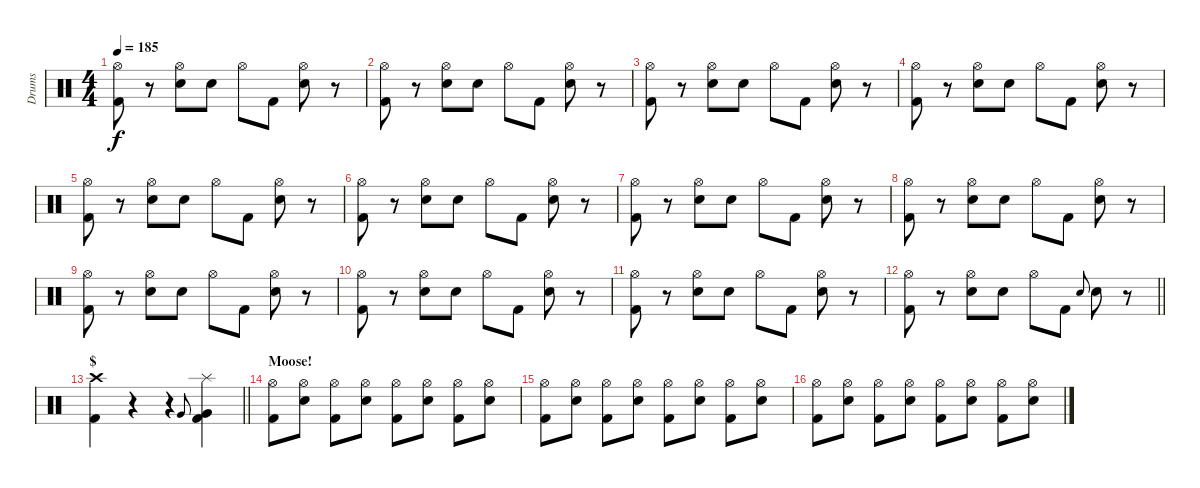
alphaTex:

\track ("Drums" "Drums") {instrument percussion}
\staff {score}
\articulation defaults
\ts (4 4)
\tempo 185
\clef neutral
\ks c
("Hi-Hat (open)" "Kick (hit) 2").8{dy f} r.8 ("Hi-Hat (open)" "Snare (hit) 2").8 "Snare (hit) 2".8 "Hi-Hat (open)".8 "Kick (hit) 2".8 ("Hi-Hat (open)" "Snare (hit) 2").8 r.8 |
("Hi-Hat (open)" "Kick (hit) 2").8 r.8 ("Hi-Hat (open)" "Snare (hit) 2").8 "Snare (hit) 2".8 "Hi-Hat (open)".8 "Kick (hit) 2".8 ("Hi-Hat (open)" "Snare (hit) 2").8 r.8 |
("Hi-Hat (open)" "Kick (hit) 2").8 r.8 ("Hi-Hat (open)" "Snare (hit) 2").8 "Snare (hit) 2".8 "Hi-Hat (open)".8 "Kick (hit) 2".8 ("Hi-Hat (open)" "Snare (hit) 2").8 r.8 |
("Hi-Hat (open)" "Kick (hit) 2").8 r.8 ("Hi-Hat (open)" "Snare (hit) 2").8 "Snare (hit) 2".8 "Hi-Hat (open)".8 "Kick (hit) 2".8 ("Hi-Hat (open)" "Snare (hit) 2").8 r.8 |
("Hi-Hat (open)" "Kick (hit) 2").8 r.8 ("Hi-Hat (open)" "Snare (hit) 2").8 "Snare (hit) 2".8 "Hi-Hat (open)".8 "Kick (hit) 2".8 ("Hi-Hat (open)" "Snare (hit) 2").8 r.8 |
("Hi-Hat (open)" "Kick (hit) 2").8 r.8 ("Hi-Hat (open)" "Snare (hit) 2").8 "Snare (hit) 2".8 "Hi-Hat (open)".8 "Kick (hit) 2".8 ("Hi-Hat (open)" "Snare (hit) 2").8 r.8 |
("Hi-Hat (open)" "Kick (hit) 2").8 r.8 ("Hi-Hat (open)" "Snare (hit) 2").8 "Snare (hit) 2".8 "Hi-Hat (open)".8 "Kick (hit) 2".8 ("Hi-Hat (open)" "Snare (hit) 2").8 r.8 |
("Hi-Hat (open)" "Kick (hit) 2").8 r.8 ("Hi-Hat (open)" "Snare (hit) 2").8 "Snare (hit) 2".8 "Hi-Hat (open)".8 "Kick (hit) 2".8 ("Hi-Hat (open)" "Snare (hit) 2").8 r.8 |
("Hi-Hat (open)" "Kick (hit) 2").8 r.8 ("Hi-Hat (open)" "Snare (hit) 2").8 "Snare (hit) 2".8 "Hi-Hat (open)".8 "Kick (hit) 2".8 ("Hi-Hat (open)" "Snare (hit) 2").8 r.8 |
("Hi-Hat (open)" "Kick (hit) 2").8 r.8 ("Hi-Hat (open)" "Snare (hit) 2").8 "Snare (hit) 2".8 "Hi-Hat (open)".8 "Kick (hit) 2".8 ("Hi-Hat (open)" "Snare (hit) 2").8 r.8 |
("Hi-Hat (open)" "Kick (hit) 2").8 r.8 ("Hi-Hat (open)" "Snare (hit) 2").8 "Snare (hit) 2".8 "Hi-Hat (open)".8 "Kick (hit) 2".8 ("Hi-Hat (open)" "Snare (hit) 2").8 r.8 |
\barLineRight lightlight
("Hi-Hat (open)" "Kick (hit) 2").8 r.8 ("Hi-Hat (open)" "Snare (hit) 2").8 "Snare (hit) 2".8 "Hi-Hat (open)".8 "Kick (hit) 2".8 "Snare (hit) 2".8{gr onbeat} "Snare (hit) 2".8 r.8 |
\section ("" "$")
\barLineRight lightlight
("Crash high (hit)" "Kick (hit) 2").4 r.4 r.4 "Very Low Tom (hit)".8{gr onbeat} ("Splash (hit)" "Very Low Tom (hit)" "Kick (hit) 2").4 |
\section ("" "Moose!")
("Hi-Hat (open)" "Kick (hit) 2").8 ("Hi-Hat (open)" "Snare (hit) 2").8 ("Hi-Hat (open)" "Kick (hit) 2").8 ("Hi-Hat (open)" "Snare (hit) 2").8 ("Hi-Hat (open)" "Kick (hit) 2").8 ("Hi-Hat (open)" "Snare (hit) 2").8 ("Hi-Hat (open)" "Kick (hit) 2").8 ("Hi-Hat (open)" "Snare (hit) 2").8 |
("Hi-Hat (open)" "Kick (hit) 2").8 ("Hi-Hat (open)" "Snare (hit) 2").8 ("Hi-Hat (open)" "Kick (hit) 2").8 ("Hi-Hat (open)" "Snare (hit) 2").8 ("Hi-Hat (open)" "Kick (hit) 2").8 ("Hi-Hat (open)" "Snare (hit) 2").8 ("Hi-Hat (open)" "Kick (hit) 2").8 ("Hi-Hat (open)" "Snare (hit) 2").8 |
("Hi-Hat (open)" "Kick (hit) 2").8 ("Hi-Hat (open)" "Snare (hit) 2").8 ("Hi-Hat (open)" "Kick (hit) 2").8 ("Hi-Hat (open)" "Snare (hit) 2").8 ("Hi-Hat (open)" "Kick (hit) 2").8 ("Hi-Hat (open)" "Snare (hit) 2").8 ("Hi-Hat (open)" "Kick (hit) 2").8 ("Hi-Hat (open)" "Snare (hit) 2").8
